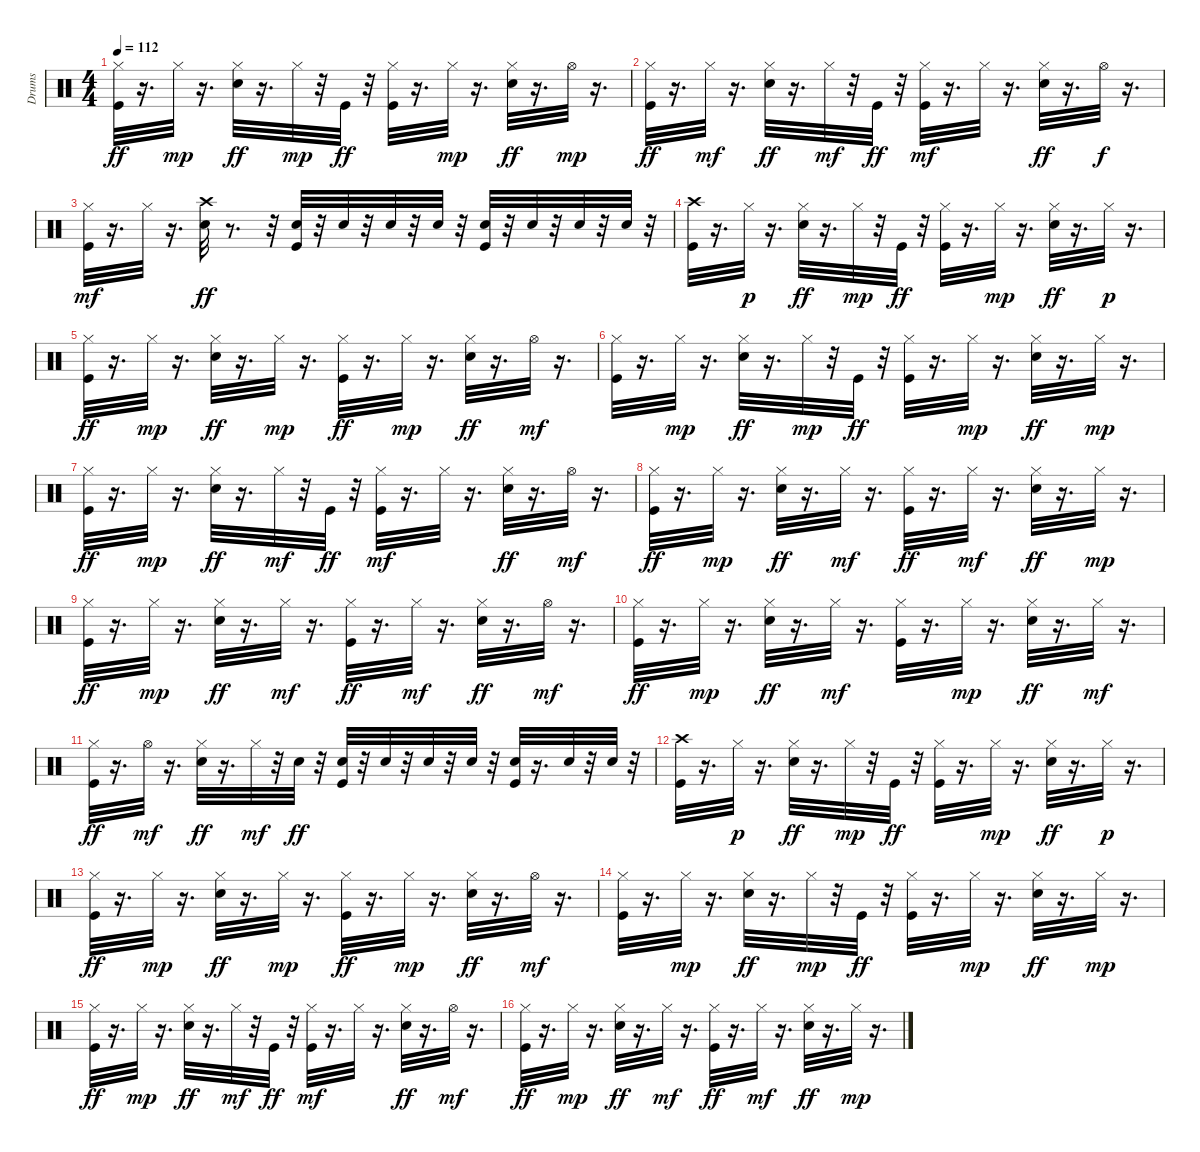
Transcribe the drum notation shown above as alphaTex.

\track ("Drums" "Drums") {instrument percussion}
\staff {score}
\articulation defaults
\ts (4 4)
\tempo 112
\clef neutral
\ks c
("Hi-Hat (closed)" "Kick (hit)").32{dy ff} r.16{d} "Hi-Hat (closed)".32{dy mp} r.16{d} ("Electric Snare (hit)" "Hi-Hat (closed)").32{dy ff} r.16{d} "Hi-Hat (closed)".32{dy mp} r.32 "Kick (hit)".32{dy ff} r.32 ("Hi-Hat (closed)" "Kick (hit)").32 r.16{d} "Hi-Hat (closed)".32{dy mp} r.16{d} ("Electric Snare (hit)" "Hi-Hat (closed)").32{dy ff} r.16{d} "Hi-Hat (open)".32{dy mp} r.16{d} |
("Kick (hit)" "Hi-Hat (closed)").32{dy ff} r.16{d} "Hi-Hat (closed)".32{dy mf} r.16{d} ("Hi-Hat (closed)" "Electric Snare (hit)").32{dy ff} r.16{d} "Hi-Hat (closed)".32{dy mf} r.32 "Kick (hit)".32{dy ff} r.32 ("Kick (hit)" "Hi-Hat (closed)").32{dy mf} r.16{d} "Hi-Hat (closed)".32 r.16{d} ("Hi-Hat (closed)" "Electric Snare (hit)").32{dy ff} r.16{d} "Hi-Hat (open)".32{dy f} r.16{d} |
("Kick (hit)" "Hi-Hat (closed)").32{dy mf} r.16{d} "Hi-Hat (closed)".32 r.16{d} ("Crash high (hit)" "Electric Snare (hit)").32{dy ff} r.8{d} r.32 ("Kick (hit)" "Electric Snare (hit)").32 r.32 "Electric Snare (hit)".32 r.32 "Electric Snare (hit)".32 r.32 "Electric Snare (hit)".32 r.32 ("Kick (hit)" "Electric Snare (hit)").32 r.32 "Electric Snare (hit)".32 r.32 "Electric Snare (hit)".32 r.32 "Electric Snare (hit)".32 r.32 |
("Kick (hit)" "Crash high (hit)").32 r.16{d} "Hi-Hat (closed)".32{dy p} r.16{d} ("Hi-Hat (closed)" "Electric Snare (hit)").32{dy ff} r.16{d} "Hi-Hat (closed)".32{dy mp} r.32 "Kick (hit)".32{dy ff} r.32 ("Kick (hit)" "Hi-Hat (closed)").32 r.16{d} "Hi-Hat (closed)".32{dy mp} r.16{d} ("Hi-Hat (closed)" "Electric Snare (hit)").32{dy ff} r.16{d} "Hi-Hat (closed)".32{dy p} r.16{d} |
("Hi-Hat (closed)" "Kick (hit)").32{dy ff} r.16{d} "Hi-Hat (closed)".32{dy mp} r.16{d} ("Hi-Hat (closed)" "Electric Snare (hit)").32{dy ff} r.16{d} "Hi-Hat (closed)".32{dy mp} r.16{d} ("Hi-Hat (closed)" "Kick (hit)").32{dy ff} r.16{d} "Hi-Hat (closed)".32{dy mp} r.16{d} ("Hi-Hat (closed)" "Electric Snare (hit)").32{dy ff} r.16{d} "Hi-Hat (open)".32{dy mf} r.16{d} |
("Kick (hit)" "Hi-Hat (closed)").32 r.16{d} "Hi-Hat (closed)".32{dy mp} r.16{d} ("Electric Snare (hit)" "Hi-Hat (closed)").32{dy ff} r.16{d} "Hi-Hat (closed)".32{dy mp} r.32 "Kick (hit)".32{dy ff} r.32 ("Hi-Hat (closed)" "Kick (hit)").32 r.16{d} "Hi-Hat (closed)".32{dy mp} r.16{d} ("Electric Snare (hit)" "Hi-Hat (closed)").32{dy ff} r.16{d} "Hi-Hat (closed)".32{dy mp} r.16{d} |
("Hi-Hat (closed)" "Kick (hit)").32{dy ff} r.16{d} "Hi-Hat (closed)".32{dy mp} r.16{d} ("Hi-Hat (closed)" "Electric Snare (hit)").32{dy ff} r.16{d} "Hi-Hat (closed)".32{dy mf} r.32 "Kick (hit)".32{dy ff} r.32 ("Kick (hit)" "Hi-Hat (closed)").32{dy mf} r.16{d} "Hi-Hat (closed)".32 r.16{d} ("Electric Snare (hit)" "Hi-Hat (closed)").32{dy ff} r.16{d} "Hi-Hat (open)".32{dy mf} r.16{d} |
("Hi-Hat (closed)" "Kick (hit)").32{dy ff} r.16{d} "Hi-Hat (closed)".32{dy mp} r.16{d} ("Hi-Hat (closed)" "Electric Snare (hit)").32{dy ff} r.16{d} "Hi-Hat (closed)".32{dy mf} r.16{d} ("Hi-Hat (closed)" "Kick (hit)").32{dy ff} r.16{d} "Hi-Hat (closed)".32{dy mf} r.16{d} ("Hi-Hat (closed)" "Electric Snare (hit)").32{dy ff} r.16{d} "Hi-Hat (closed)".32{dy mp} r.16{d} |
("Hi-Hat (closed)" "Kick (hit)").32{dy ff} r.16{d} "Hi-Hat (closed)".32{dy mp} r.16{d} ("Hi-Hat (closed)" "Electric Snare (hit)").32{dy ff} r.16{d} "Hi-Hat (closed)".32{dy mf} r.16{d} ("Hi-Hat (closed)" "Kick (hit)").32{dy ff} r.16{d} "Hi-Hat (closed)".32{dy mf} r.16{d} ("Hi-Hat (closed)" "Electric Snare (hit)").32{dy ff} r.16{d} "Hi-Hat (open)".32{dy mf} r.16{d} |
("Hi-Hat (closed)" "Kick (hit)").32{dy ff} r.16{d} "Hi-Hat (closed)".32{dy mp} r.16{d} ("Electric Snare (hit)" "Hi-Hat (closed)").32{dy ff} r.16{d} "Hi-Hat (closed)".32{dy mf} r.16{d} ("Kick (hit)" "Hi-Hat (closed)").32 r.16{d} "Hi-Hat (closed)".32{dy mp} r.16{d} ("Hi-Hat (closed)" "Electric Snare (hit)").32{dy ff} r.16{d} "Hi-Hat (closed)".32{dy mf} r.16{d} |
("Hi-Hat (closed)" "Kick (hit)").32{dy ff} r.16{d} "Hi-Hat (open)".32{dy mf} r.16{d} ("Hi-Hat (closed)" "Electric Snare (hit)").32{dy ff} r.16{d} "Hi-Hat (closed)".32{dy mf} r.32 "Electric Snare (hit)".32{dy ff} r.32 ("Kick (hit)" "Electric Snare (hit)").32 r.32 "Electric Snare (hit)".32 r.32 "Electric Snare (hit)".32 r.32 "Electric Snare (hit)".32 r.32 ("Kick (hit)" "Electric Snare (hit)").32 r.16{d} "Electric Snare (hit)".32 r.32 "Electric Snare (hit)".32 r.32 |
("Kick (hit)" "Crash high (hit)").32 r.16{d} "Hi-Hat (closed)".32{dy p} r.16{d} ("Hi-Hat (closed)" "Electric Snare (hit)").32{dy ff} r.16{d} "Hi-Hat (closed)".32{dy mp} r.32 "Kick (hit)".32{dy ff} r.32 ("Kick (hit)" "Hi-Hat (closed)").32 r.16{d} "Hi-Hat (closed)".32{dy mp} r.16{d} ("Hi-Hat (closed)" "Electric Snare (hit)").32{dy ff} r.16{d} "Hi-Hat (closed)".32{dy p} r.16{d} |
("Hi-Hat (closed)" "Kick (hit)").32{dy ff} r.16{d} "Hi-Hat (closed)".32{dy mp} r.16{d} ("Hi-Hat (closed)" "Electric Snare (hit)").32{dy ff} r.16{d} "Hi-Hat (closed)".32{dy mp} r.16{d} ("Hi-Hat (closed)" "Kick (hit)").32{dy ff} r.16{d} "Hi-Hat (closed)".32{dy mp} r.16{d} ("Hi-Hat (closed)" "Electric Snare (hit)").32{dy ff} r.16{d} "Hi-Hat (open)".32{dy mf} r.16{d} |
("Kick (hit)" "Hi-Hat (closed)").32 r.16{d} "Hi-Hat (closed)".32{dy mp} r.16{d} ("Electric Snare (hit)" "Hi-Hat (closed)").32{dy ff} r.16{d} "Hi-Hat (closed)".32{dy mp} r.32 "Kick (hit)".32{dy ff} r.32 ("Hi-Hat (closed)" "Kick (hit)").32 r.16{d} "Hi-Hat (closed)".32{dy mp} r.16{d} ("Electric Snare (hit)" "Hi-Hat (closed)").32{dy ff} r.16{d} "Hi-Hat (closed)".32{dy mp} r.16{d} |
("Hi-Hat (closed)" "Kick (hit)").32{dy ff} r.16{d} "Hi-Hat (closed)".32{dy mp} r.16{d} ("Hi-Hat (closed)" "Electric Snare (hit)").32{dy ff} r.16{d} "Hi-Hat (closed)".32{dy mf} r.32 "Kick (hit)".32{dy ff} r.32 ("Kick (hit)" "Hi-Hat (closed)").32{dy mf} r.16{d} "Hi-Hat (closed)".32 r.16{d} ("Electric Snare (hit)" "Hi-Hat (closed)").32{dy ff} r.16{d} "Hi-Hat (open)".32{dy mf} r.16{d} |
("Hi-Hat (closed)" "Kick (hit)").32{dy ff} r.16{d} "Hi-Hat (closed)".32{dy mp} r.16{d} ("Hi-Hat (closed)" "Electric Snare (hit)").32{dy ff} r.16{d} "Hi-Hat (closed)".32{dy mf} r.16{d} ("Hi-Hat (closed)" "Kick (hit)").32{dy ff} r.16{d} "Hi-Hat (closed)".32{dy mf} r.16{d} ("Hi-Hat (closed)" "Electric Snare (hit)").32{dy ff} r.16{d} "Hi-Hat (closed)".32{dy mp} r.16{d}
